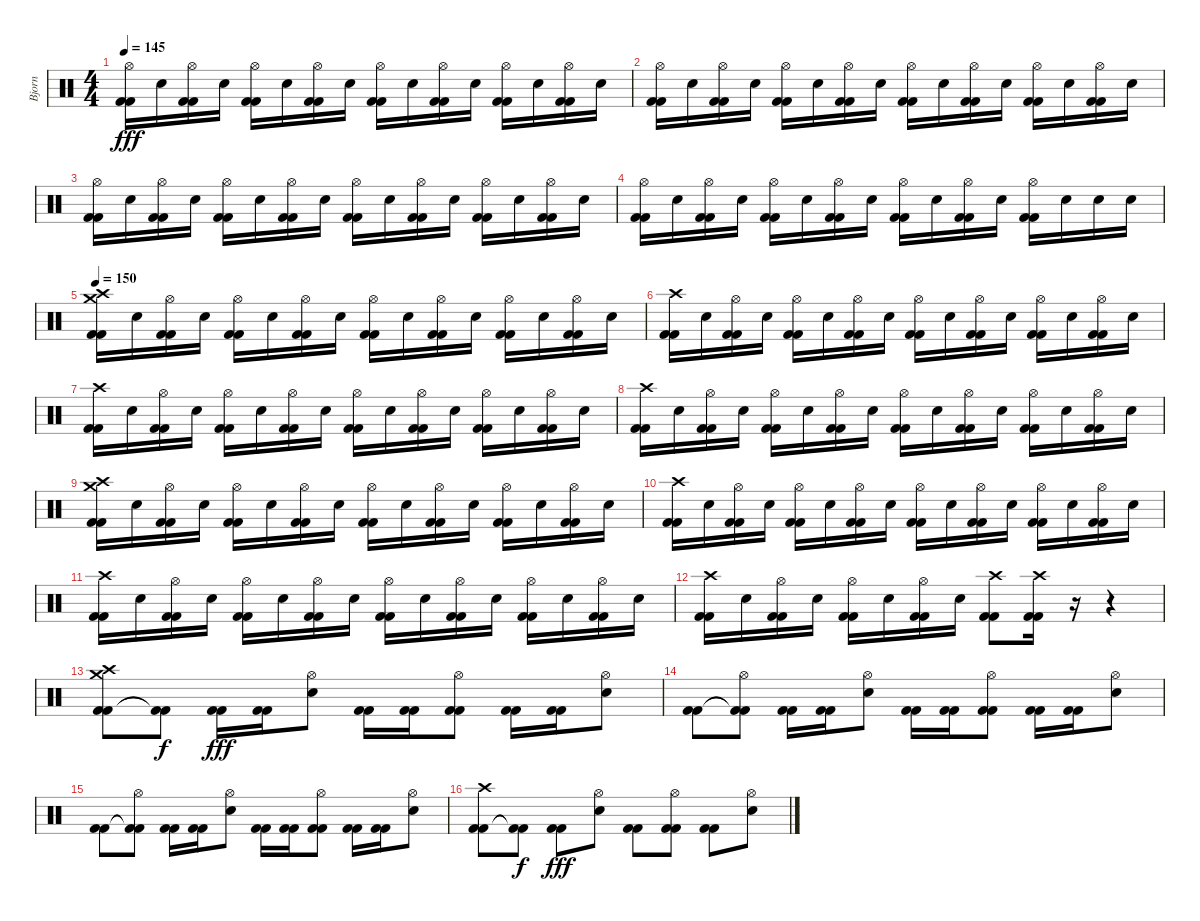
\track ("Bjorn" "Bjorn") {instrument percussion}
\staff {score}
\articulation defaults
\ts (4 4)
\tempo 145
\clef neutral
\ks c
("Kick (hit) 2" "Kick (hit) 2" "Hi-Hat (open)").16{dy fff} "Snare (hit) 2".16 ("Kick (hit) 2" "Kick (hit) 2" "Hi-Hat (open)").16 "Snare (hit) 2".16 ("Kick (hit) 2" "Kick (hit) 2" "Hi-Hat (open)").16 "Snare (hit) 2".16 ("Kick (hit) 2" "Kick (hit) 2" "Hi-Hat (open)").16 "Snare (hit) 2".16 ("Kick (hit) 2" "Kick (hit) 2" "Hi-Hat (open)").16 "Snare (hit) 2".16 ("Kick (hit) 2" "Kick (hit) 2" "Hi-Hat (open)").16 "Snare (hit) 2".16 ("Kick (hit) 2" "Kick (hit) 2" "Hi-Hat (open)").16 "Snare (hit) 2".16 ("Kick (hit) 2" "Kick (hit) 2" "Hi-Hat (open)").16 "Snare (hit) 2".16 |
("Kick (hit) 2" "Kick (hit) 2" "Hi-Hat (open)").16 "Snare (hit) 2".16 ("Kick (hit) 2" "Kick (hit) 2" "Hi-Hat (open)").16 "Snare (hit) 2".16 ("Kick (hit) 2" "Kick (hit) 2" "Hi-Hat (open)").16 "Snare (hit) 2".16 ("Kick (hit) 2" "Kick (hit) 2" "Hi-Hat (open)").16 "Snare (hit) 2".16 ("Kick (hit) 2" "Kick (hit) 2" "Hi-Hat (open)").16 "Snare (hit) 2".16 ("Kick (hit) 2" "Kick (hit) 2" "Hi-Hat (open)").16 "Snare (hit) 2".16 ("Kick (hit) 2" "Kick (hit) 2" "Hi-Hat (open)").16 "Snare (hit) 2".16 ("Kick (hit) 2" "Kick (hit) 2" "Hi-Hat (open)").16 "Snare (hit) 2".16 |
("Kick (hit) 2" "Kick (hit) 2" "Hi-Hat (open)").16 "Snare (hit) 2".16 ("Kick (hit) 2" "Kick (hit) 2" "Hi-Hat (open)").16 "Snare (hit) 2".16 ("Kick (hit) 2" "Kick (hit) 2" "Hi-Hat (open)").16 "Snare (hit) 2".16 ("Kick (hit) 2" "Kick (hit) 2" "Hi-Hat (open)").16 "Snare (hit) 2".16 ("Kick (hit) 2" "Kick (hit) 2" "Hi-Hat (open)").16 "Snare (hit) 2".16 ("Kick (hit) 2" "Kick (hit) 2" "Hi-Hat (open)").16 "Snare (hit) 2".16 ("Kick (hit) 2" "Kick (hit) 2" "Hi-Hat (open)").16 "Snare (hit) 2".16 ("Kick (hit) 2" "Kick (hit) 2" "Hi-Hat (open)").16 "Snare (hit) 2".16 |
("Kick (hit) 2" "Kick (hit) 2" "Hi-Hat (open)").16 "Snare (hit) 2".16 ("Kick (hit) 2" "Kick (hit) 2" "Hi-Hat (open)").16 "Snare (hit) 2".16 ("Kick (hit) 2" "Kick (hit) 2" "Hi-Hat (open)").16 "Snare (hit) 2".16 ("Kick (hit) 2" "Kick (hit) 2" "Hi-Hat (open)").16 "Snare (hit) 2".16 ("Kick (hit) 2" "Kick (hit) 2" "Hi-Hat (open)").16 "Snare (hit) 2".16 ("Kick (hit) 2" "Kick (hit) 2" "Hi-Hat (open)").16 "Snare (hit) 2".16 ("Kick (hit) 2" "Kick (hit) 2" "Hi-Hat (open)").16 "Snare (hit) 2".16 "Snare (hit) 2".16 "Snare (hit) 2".16 |
\tempo 150
("Kick (hit) 2" "Kick (hit) 2" "Crash high (hit)" "Crash medium (hit)").16 "Snare (hit) 2".16 ("Kick (hit) 2" "Kick (hit) 2" "Hi-Hat (open)").16 "Snare (hit) 2".16 ("Kick (hit) 2" "Kick (hit) 2" "Hi-Hat (open)").16 "Snare (hit) 2".16 ("Kick (hit) 2" "Kick (hit) 2" "Hi-Hat (open)").16 "Snare (hit) 2".16 ("Kick (hit) 2" "Kick (hit) 2" "Hi-Hat (open)").16 "Snare (hit) 2".16 ("Kick (hit) 2" "Kick (hit) 2" "Hi-Hat (open)").16 "Snare (hit) 2".16 ("Kick (hit) 2" "Kick (hit) 2" "Hi-Hat (open)").16 "Snare (hit) 2".16 ("Kick (hit) 2" "Kick (hit) 2" "Hi-Hat (open)").16 "Snare (hit) 2".16 |
("Kick (hit) 2" "Kick (hit) 2" "Crash high (hit)").16 "Snare (hit) 2".16 ("Kick (hit) 2" "Kick (hit) 2" "Hi-Hat (open)").16 "Snare (hit) 2".16 ("Kick (hit) 2" "Kick (hit) 2" "Hi-Hat (open)").16 "Snare (hit) 2".16 ("Kick (hit) 2" "Kick (hit) 2" "Hi-Hat (open)").16 "Snare (hit) 2".16 ("Kick (hit) 2" "Kick (hit) 2" "Hi-Hat (open)").16 "Snare (hit) 2".16 ("Kick (hit) 2" "Kick (hit) 2" "Hi-Hat (open)").16 "Snare (hit) 2".16 ("Kick (hit) 2" "Kick (hit) 2" "Hi-Hat (open)").16 "Snare (hit) 2".16 ("Kick (hit) 2" "Kick (hit) 2" "Hi-Hat (open)").16 "Snare (hit) 2".16 |
("Kick (hit) 2" "Kick (hit) 2" "Crash high (hit)").16 "Snare (hit) 2".16 ("Kick (hit) 2" "Kick (hit) 2" "Hi-Hat (open)").16 "Snare (hit) 2".16 ("Kick (hit) 2" "Kick (hit) 2" "Hi-Hat (open)").16 "Snare (hit) 2".16 ("Kick (hit) 2" "Kick (hit) 2" "Hi-Hat (open)").16 "Snare (hit) 2".16 ("Kick (hit) 2" "Kick (hit) 2" "Hi-Hat (open)").16 "Snare (hit) 2".16 ("Kick (hit) 2" "Kick (hit) 2" "Hi-Hat (open)").16 "Snare (hit) 2".16 ("Kick (hit) 2" "Kick (hit) 2" "Hi-Hat (open)").16 "Snare (hit) 2".16 ("Kick (hit) 2" "Kick (hit) 2" "Hi-Hat (open)").16 "Snare (hit) 2".16 |
("Kick (hit) 2" "Kick (hit) 2" "Crash high (hit)").16 "Snare (hit) 2".16 ("Kick (hit) 2" "Kick (hit) 2" "Hi-Hat (open)").16 "Snare (hit) 2".16 ("Kick (hit) 2" "Kick (hit) 2" "Hi-Hat (open)").16 "Snare (hit) 2".16 ("Kick (hit) 2" "Kick (hit) 2" "Hi-Hat (open)").16 "Snare (hit) 2".16 ("Kick (hit) 2" "Kick (hit) 2" "Hi-Hat (open)").16 "Snare (hit) 2".16 ("Kick (hit) 2" "Kick (hit) 2" "Hi-Hat (open)").16 "Snare (hit) 2".16 ("Kick (hit) 2" "Kick (hit) 2" "Hi-Hat (open)").16 "Snare (hit) 2".16 ("Kick (hit) 2" "Kick (hit) 2" "Hi-Hat (open)").16 "Snare (hit) 2".16 |
("Kick (hit) 2" "Kick (hit) 2" "Crash high (hit)" "Crash medium (hit)").16 "Snare (hit) 2".16 ("Kick (hit) 2" "Kick (hit) 2" "Hi-Hat (open)").16 "Snare (hit) 2".16 ("Kick (hit) 2" "Kick (hit) 2" "Hi-Hat (open)").16 "Snare (hit) 2".16 ("Kick (hit) 2" "Kick (hit) 2" "Hi-Hat (open)").16 "Snare (hit) 2".16 ("Kick (hit) 2" "Kick (hit) 2" "Hi-Hat (open)").16 "Snare (hit) 2".16 ("Kick (hit) 2" "Kick (hit) 2" "Hi-Hat (open)").16 "Snare (hit) 2".16 ("Kick (hit) 2" "Kick (hit) 2" "Hi-Hat (open)").16 "Snare (hit) 2".16 ("Kick (hit) 2" "Kick (hit) 2" "Hi-Hat (open)").16 "Snare (hit) 2".16 |
("Kick (hit) 2" "Kick (hit) 2" "Crash high (hit)").16 "Snare (hit) 2".16 ("Kick (hit) 2" "Kick (hit) 2" "Hi-Hat (open)").16 "Snare (hit) 2".16 ("Kick (hit) 2" "Kick (hit) 2" "Hi-Hat (open)").16 "Snare (hit) 2".16 ("Kick (hit) 2" "Kick (hit) 2" "Hi-Hat (open)").16 "Snare (hit) 2".16 ("Kick (hit) 2" "Kick (hit) 2" "Hi-Hat (open)").16 "Snare (hit) 2".16 ("Kick (hit) 2" "Kick (hit) 2" "Hi-Hat (open)").16 "Snare (hit) 2".16 ("Kick (hit) 2" "Kick (hit) 2" "Hi-Hat (open)").16 "Snare (hit) 2".16 ("Kick (hit) 2" "Kick (hit) 2" "Hi-Hat (open)").16 "Snare (hit) 2".16 |
("Kick (hit) 2" "Kick (hit) 2" "Crash high (hit)").16 "Snare (hit) 2".16 ("Kick (hit) 2" "Kick (hit) 2" "Hi-Hat (open)").16 "Snare (hit) 2".16 ("Kick (hit) 2" "Kick (hit) 2" "Hi-Hat (open)").16 "Snare (hit) 2".16 ("Kick (hit) 2" "Kick (hit) 2" "Hi-Hat (open)").16 "Snare (hit) 2".16 ("Kick (hit) 2" "Kick (hit) 2" "Hi-Hat (open)").16 "Snare (hit) 2".16 ("Kick (hit) 2" "Kick (hit) 2" "Hi-Hat (open)").16 "Snare (hit) 2".16 ("Kick (hit) 2" "Kick (hit) 2" "Hi-Hat (open)").16 "Snare (hit) 2".16 ("Kick (hit) 2" "Kick (hit) 2" "Hi-Hat (open)").16 "Snare (hit) 2".16 |
("Kick (hit) 2" "Kick (hit) 2" "Crash high (hit)").16 "Snare (hit) 2".16 ("Kick (hit) 2" "Kick (hit) 2" "Hi-Hat (open)").16 "Snare (hit) 2".16 ("Kick (hit) 2" "Kick (hit) 2" "Hi-Hat (open)").16 "Snare (hit) 2".16 ("Kick (hit) 2" "Kick (hit) 2" "Hi-Hat (open)").16 "Snare (hit) 2".16 ("Kick (hit) 2" "Kick (hit) 2" "Crash high (hit)").8 ("Kick (hit) 2" "Kick (hit) 2" "Crash high (hit)").16 r.16 r.4 |
("Kick (hit) 2" "Kick (hit) 2" "Crash high (hit)" "Crash medium (hit)").8 ("Kick (hit) 2"{t} "Kick (hit) 2"{t}).8{dy f} ("Kick (hit) 2" "Kick (hit) 2").16{dy fff} ("Kick (hit) 2" "Kick (hit) 2").16 ("Snare (hit) 2" "Hi-Hat (open)").8 ("Kick (hit) 2" "Kick (hit) 2").16 ("Kick (hit) 2" "Kick (hit) 2").16 ("Kick (hit) 2" "Kick (hit) 2" "Hi-Hat (open)").8 ("Kick (hit) 2" "Kick (hit) 2").16 ("Kick (hit) 2" "Kick (hit) 2").16 ("Snare (hit) 2" "Hi-Hat (open)").8 |
("Kick (hit) 2" "Kick (hit) 2").8 ("Kick (hit) 2"{t} "Kick (hit) 2"{t} "Hi-Hat (open)").8 ("Kick (hit) 2" "Kick (hit) 2").16 ("Kick (hit) 2" "Kick (hit) 2").16 ("Snare (hit) 2" "Hi-Hat (open)").8 ("Kick (hit) 2" "Kick (hit) 2").16 ("Kick (hit) 2" "Kick (hit) 2").16 ("Kick (hit) 2" "Kick (hit) 2" "Hi-Hat (open)").8 ("Kick (hit) 2" "Kick (hit) 2").16 ("Kick (hit) 2" "Kick (hit) 2").16 ("Snare (hit) 2" "Hi-Hat (open)").8 |
("Kick (hit) 2" "Kick (hit) 2").8 ("Kick (hit) 2"{t} "Kick (hit) 2"{t} "Hi-Hat (open)").8 ("Kick (hit) 2" "Kick (hit) 2").16 ("Kick (hit) 2" "Kick (hit) 2").16 ("Snare (hit) 2" "Hi-Hat (open)").8 ("Kick (hit) 2" "Kick (hit) 2").16 ("Kick (hit) 2" "Kick (hit) 2").16 ("Kick (hit) 2" "Kick (hit) 2" "Hi-Hat (open)").8 ("Kick (hit) 2" "Kick (hit) 2").16 ("Kick (hit) 2" "Kick (hit) 2").16 ("Snare (hit) 2" "Hi-Hat (open)").8 |
("Kick (hit) 2" "Kick (hit) 2" "Crash high (hit)").8 ("Kick (hit) 2"{t} "Kick (hit) 2"{t}).8{dy f} ("Kick (hit) 2" "Kick (hit) 2").8{dy fff} ("Snare (hit) 2" "Hi-Hat (open)").8 ("Kick (hit) 2" "Kick (hit) 2").8 ("Kick (hit) 2" "Kick (hit) 2" "Hi-Hat (open)").8 ("Kick (hit) 2" "Kick (hit) 2").8 ("Snare (hit) 2" "Hi-Hat (open)").8
